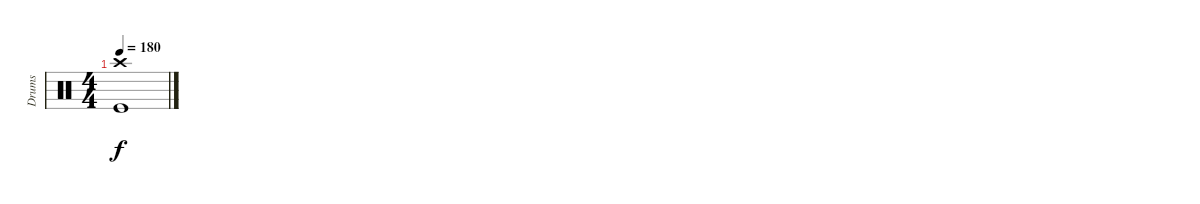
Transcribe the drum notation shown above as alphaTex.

\track ("Drums" "Drums") {instrument percussion}
\staff {score}
\articulation defaults
\ts (4 4)
\tempo 180
\clef neutral
\ks c
("Crash high (hit)" "Kick (hit)").1{dy f}
